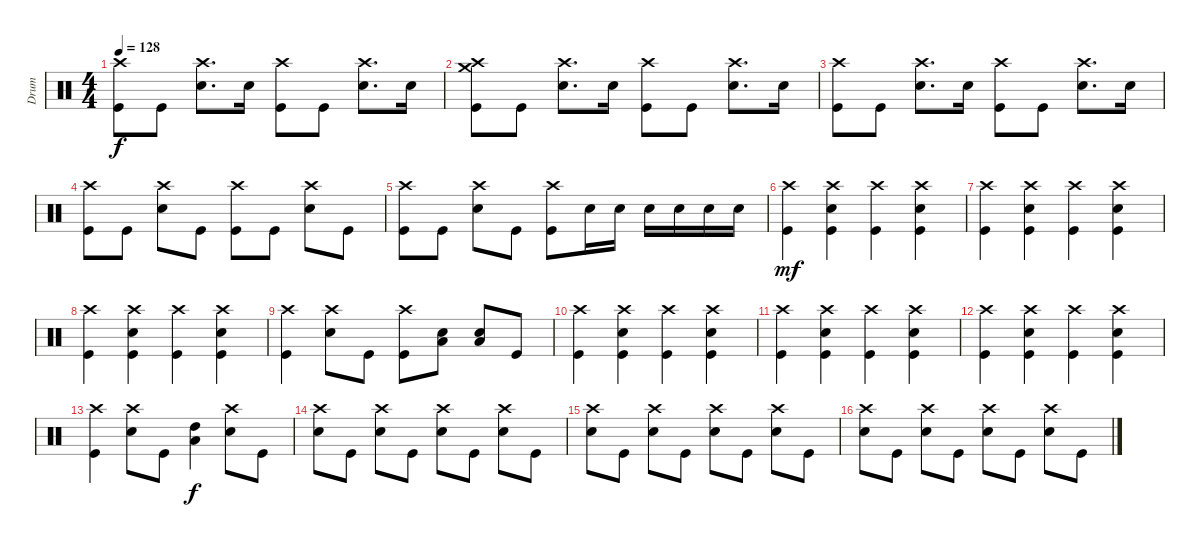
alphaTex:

\track ("Drum" "Drum") {instrument percussion}
\staff {score}
\articulation defaults
\ts (4 4)
\tempo 128
\clef neutral
\ks c
("Crash high (hit)" "Kick (hit)").8{dy f} "Kick (hit)".8 ("Crash high (hit)" "Snare (hit) 2").8{d} "Snare (hit) 2".16 ("Crash high (hit)" "Kick (hit)").8 "Kick (hit)".8 ("Crash high (hit)" "Snare (hit) 2").8{d} "Snare (hit) 2".16 |
("Crash medium (hit)" "Crash high (hit)" "Kick (hit)").8 "Kick (hit)".8 ("Crash high (hit)" "Snare (hit) 2").8{d} "Snare (hit) 2".16 ("Crash high (hit)" "Kick (hit)").8 "Kick (hit)".8 ("Crash high (hit)" "Snare (hit) 2").8{d} "Snare (hit) 2".16 |
("Crash high (hit)" "Kick (hit)").8 "Kick (hit)".8 ("Crash high (hit)" "Snare (hit) 2").8{d} "Snare (hit) 2".16 ("Crash high (hit)" "Kick (hit)").8 "Kick (hit)".8 ("Crash high (hit)" "Snare (hit) 2").8{d} "Snare (hit) 2".16 |
("Crash high (hit)" "Kick (hit)").8 "Kick (hit)".8 ("Crash high (hit)" "Snare (hit) 2").8 "Kick (hit)".8 ("Crash high (hit)" "Kick (hit)").8 "Kick (hit)".8 ("Crash high (hit)" "Snare (hit) 2").8 "Kick (hit)".8 |
("Crash high (hit)" "Kick (hit)").8 "Kick (hit)".8 ("Crash high (hit)" "Snare (hit) 2").8 "Kick (hit)".8 ("Crash high (hit)" "Kick (hit)").8 "Snare (hit) 2".16 "Snare (hit) 2".16 "Snare (hit) 2".16 "Snare (hit) 2".16 "Snare (hit) 2".16 "Snare (hit) 2".16 |
("Crash high (hit)" "Kick (hit)").4{dy mf} ("Crash high (hit)" "Kick (hit)" "Snare (hit) 2").4 ("Crash high (hit)" "Kick (hit)").4 ("Crash high (hit)" "Kick (hit)" "Snare (hit) 2").4 |
("Crash high (hit)" "Kick (hit)").4 ("Crash high (hit)" "Kick (hit)" "Snare (hit) 2").4 ("Crash high (hit)" "Kick (hit)").4 ("Crash high (hit)" "Kick (hit)" "Snare (hit) 2").4 |
("Crash high (hit)" "Kick (hit)").4 ("Crash high (hit)" "Kick (hit)" "Snare (hit) 2").4 ("Crash high (hit)" "Kick (hit)").4 ("Crash high (hit)" "Kick (hit)" "Snare (hit) 2").4 |
("Crash high (hit)" "Kick (hit)").4 ("Crash high (hit)" "Snare (hit) 2").8 "Kick (hit)".8 ("Crash high (hit)" "Kick (hit)").8 ("Snare (hit) 2" "Low Floor Tom (hit)").8 ("Snare (hit) 2" "Low Floor Tom (hit)").8 "Kick (hit)".8 |
("Crash high (hit)" "Kick (hit)").4 ("Crash high (hit)" "Kick (hit)" "Snare (hit) 2").4 ("Crash high (hit)" "Kick (hit)").4 ("Crash high (hit)" "Kick (hit)" "Snare (hit) 2").4 |
("Crash high (hit)" "Kick (hit)").4 ("Crash high (hit)" "Kick (hit)" "Snare (hit) 2").4 ("Crash high (hit)" "Kick (hit)").4 ("Crash high (hit)" "Kick (hit)" "Snare (hit) 2").4 |
("Crash high (hit)" "Kick (hit)").4 ("Crash high (hit)" "Kick (hit)" "Snare (hit) 2").4 ("Crash high (hit)" "Kick (hit)").4 ("Crash high (hit)" "Kick (hit)" "Snare (hit) 2").4 |
("Crash high (hit)" "Kick (hit)").4 ("Crash high (hit)" "Snare (hit) 2").8 "Kick (hit)".8 ("High Tom (hit)" "Low Floor Tom (hit)").4{dy f} ("Crash high (hit)" "Snare (hit) 2").8 "Kick (hit)".8 |
("Crash high (hit)" "Snare (hit) 2").8 "Kick (hit)".8 ("Crash high (hit)" "Snare (hit) 2").8 "Kick (hit)".8 ("Crash high (hit)" "Snare (hit) 2").8 "Kick (hit)".8 ("Crash high (hit)" "Snare (hit) 2").8 "Kick (hit)".8 |
("Crash high (hit)" "Snare (hit) 2").8 "Kick (hit)".8 ("Crash high (hit)" "Snare (hit) 2").8 "Kick (hit)".8 ("Crash high (hit)" "Snare (hit) 2").8 "Kick (hit)".8 ("Crash high (hit)" "Snare (hit) 2").8 "Kick (hit)".8 |
("Crash high (hit)" "Snare (hit) 2").8 "Kick (hit)".8 ("Crash high (hit)" "Snare (hit) 2").8 "Kick (hit)".8 ("Crash high (hit)" "Snare (hit) 2").8 "Kick (hit)".8 ("Crash high (hit)" "Snare (hit) 2").8 "Kick (hit)".8
